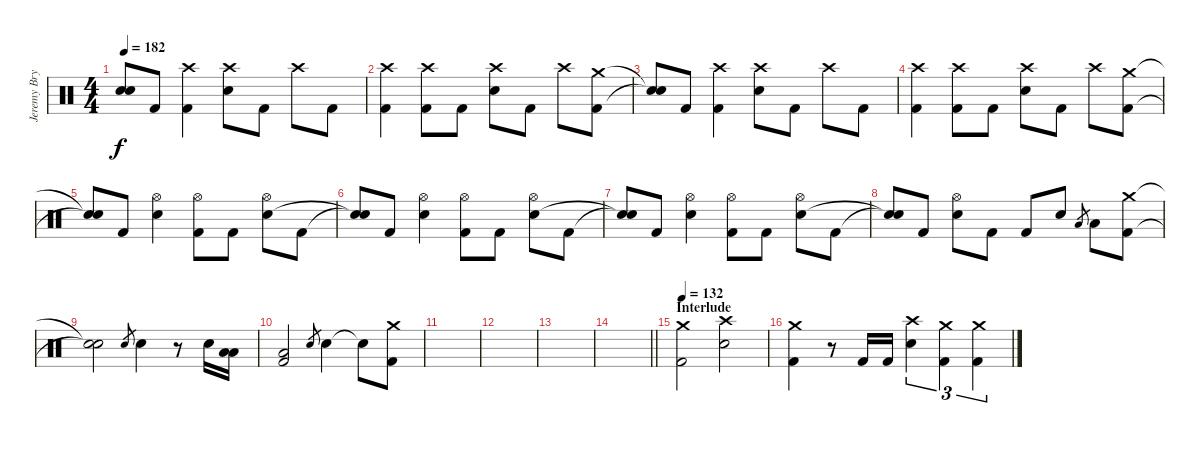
\track ("Jeremy Bryan - Drums" "Jeremy Bry") {instrument percussion}
\staff {score}
\articulation defaults
\ts (4 4)
\tempo 182
\clef neutral
\ks c
("Snare (hit)"{t} "Snare (hit)"{t}).8{dy f} "Kick (hit) 2".8 ("Crash high (hit)" "Kick (hit) 2").4 ("Crash high (hit)" "Electric Snare (hit)").8 "Kick (hit) 2".8 "Crash high (hit)".8 "Kick (hit) 2".8 |
("Crash high (hit)" "Kick (hit) 2").4 ("Crash high (hit)" "Kick (hit) 2").8 "Kick (hit) 2".8 ("Crash high (hit)" "Electric Snare (hit)").8 "Kick (hit) 2".8 "Crash high (hit)".8 ("Crash medium (hit)" "Kick (hit) 2").8 |
("Snare (hit)"{t} "Snare (hit)"{t}).8 "Kick (hit) 2".8 ("Crash high (hit)" "Kick (hit) 2").4 ("Crash high (hit)" "Electric Snare (hit)").8 "Kick (hit) 2".8 "Crash high (hit)".8 "Kick (hit) 2".8 |
("Crash high (hit)" "Kick (hit) 2").4 ("Crash high (hit)" "Kick (hit) 2").8 "Kick (hit) 2".8 ("Crash high (hit)" "Electric Snare (hit)").8 "Kick (hit) 2".8 "Crash high (hit)".8 ("Crash medium (hit)" "Kick (hit) 2").8 |
("Snare (hit)"{t} "Snare (hit)"{t}).8 "Kick (hit) 2".8 ("Hi-Hat (open)" "Electric Snare (hit)").4 ("Hi-Hat (open)" "Kick (hit) 2").8 "Kick (hit) 2".8 ("Hi-Hat (open)" "Electric Snare (hit)").8 "Kick (hit) 2".8 |
("Snare (hit)"{t} "Snare (hit)"{t}).8 "Kick (hit) 2".8 ("Hi-Hat (open)" "Electric Snare (hit)").4 ("Hi-Hat (open)" "Kick (hit) 2").8 "Kick (hit) 2".8 ("Hi-Hat (open)" "Electric Snare (hit)").8 "Kick (hit) 2".8 |
("Snare (hit)"{t} "Snare (hit)"{t}).8 "Kick (hit) 2".8 ("Hi-Hat (open)" "Electric Snare (hit)").4 ("Hi-Hat (open)" "Kick (hit) 2").8 "Kick (hit) 2".8 ("Hi-Hat (open)" "Electric Snare (hit)").8 "Kick (hit) 2".8 |
("Snare (hit)"{t} "Snare (hit)"{t}).8 "Kick (hit) 2".8 ("Hi-Hat (open)" "Electric Snare (hit)").8 "Kick (hit) 2".8 "Kick (hit) 2".8 "Electric Snare (hit)".8 "Low Tom (hit)".8{gr} "Low Tom (hit)".8 ("Crash medium (hit)" "Kick (hit) 2").8 |
("Snare (hit)"{t} "Snare (hit)"{t}).2 "Electric Snare (hit)".8{gr} "Electric Snare (hit)".4 r.8 "Electric Snare (hit)".16 ("Low Tom (hit)" "Low Tom (hit)").16 |
("Low Tom (hit)" "Kick (hit) 2").2 "Electric Snare (hit)".8{gr} "Electric Snare (hit)".4 "Snare (hit)"{t}.8 ("Crash medium (hit)" "Kick (hit) 2").8 |
|
|
|
\barLineRight lightlight
|
\section ("" "Interlude")
\tempo 132
("Crash medium (hit)" "Kick (hit) 2").2 ("Crash high (hit)" "Electric Snare (hit)").2 |
("Crash medium (hit)" "Kick (hit) 2").4 r.8 "Kick (hit) 2".16 "Kick (hit) 2".16 ("Crash high (hit)" "Electric Snare (hit)").4{tu (3 2)} ("Crash medium (hit)" "Kick (hit) 2").4{tu (3 2)} ("Crash medium (hit)" "Kick (hit) 2").4{tu (3 2)}
